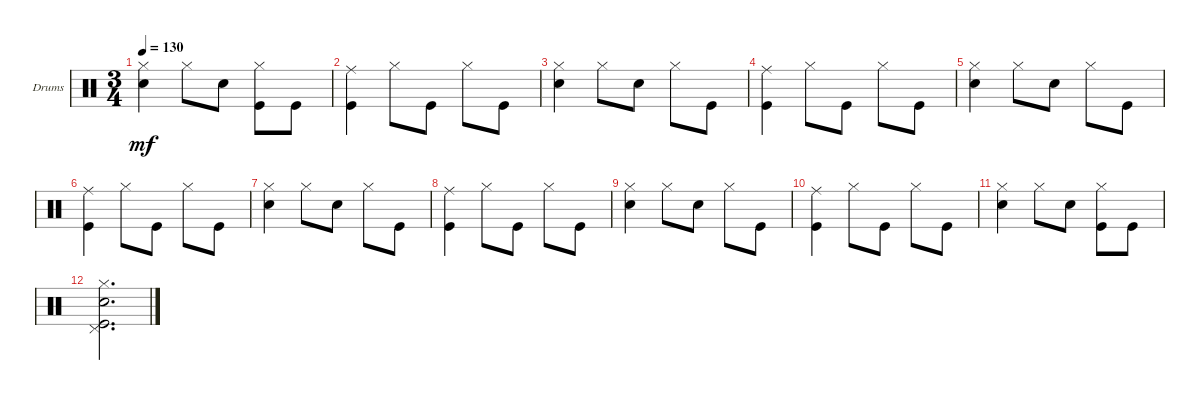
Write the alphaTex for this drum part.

\defaultSystemsLayout 4
\bracketExtendMode groupsimilarinstruments
\firstSystemTrackNameOrientation horizontal
\otherSystemsTrackNameOrientation horizontal
\chordDiagramsInScore
\track ("Drumkit" "Drums") {instrument percussion}
\staff {score}
\articulation defaults
\ts (3 4)
\tempo 130
\clef neutral
\ks c
("Hi-Hat (closed)" "Snare (hit) 2").4{dy mf} "Hi-Hat (closed)".8 "Snare (hit) 2".8 ("Kick (hit)" "Hi-Hat (closed)").8 "Kick (hit)".8 |
("Kick (hit)" "Ride (middle)").4 "Hi-Hat (closed)".8 "Kick (hit)".8 "Hi-Hat (closed)".8 "Kick (hit)".8 |
("Hi-Hat (closed)" "Snare (hit) 2").4 "Hi-Hat (closed)".8 "Snare (hit) 2".8 "Hi-Hat (closed)".8 "Kick (hit)".8 |
("Kick (hit)" "Ride (middle)").4 "Hi-Hat (closed)".8 "Kick (hit)".8 "Hi-Hat (closed)".8 "Kick (hit)".8 |
("Hi-Hat (closed)" "Snare (hit) 2").4 "Hi-Hat (closed)".8 "Snare (hit) 2".8 "Hi-Hat (closed)".8 "Kick (hit)".8 |
("Kick (hit)" "Ride (middle)").4 "Hi-Hat (closed)".8 "Kick (hit)".8 "Hi-Hat (closed)".8 "Kick (hit)".8 |
("Hi-Hat (closed)" "Snare (hit) 2").4 "Hi-Hat (closed)".8 "Snare (hit) 2".8 "Hi-Hat (closed)".8 "Kick (hit)".8 |
("Kick (hit)" "Ride (middle)").4 "Hi-Hat (closed)".8 "Kick (hit)".8 "Hi-Hat (closed)".8 "Kick (hit)".8 |
("Hi-Hat (closed)" "Snare (hit) 2").4 "Hi-Hat (closed)".8 "Snare (hit) 2".8 "Hi-Hat (closed)".8 "Kick (hit)".8 |
("Kick (hit)" "Ride (middle)").4 "Hi-Hat (closed)".8 "Kick (hit)".8 "Hi-Hat (closed)".8 "Kick (hit)".8 |
("Hi-Hat (closed)" "Snare (hit) 2").4 "Hi-Hat (closed)".8 "Snare (hit) 2".8 ("Kick (hit)" "Hi-Hat (closed)").8 "Kick (hit)".8 |
("Hi-Hat (closed)" "Snare (hit) 2" "Kick (hit)" "Pedal Hi-Hat (hit)").2{d}
